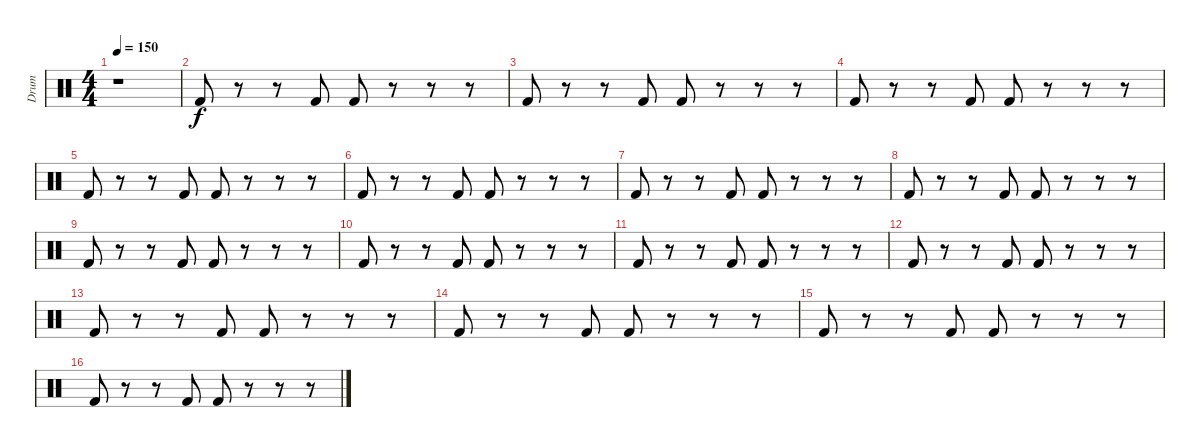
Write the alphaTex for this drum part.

\track ("Drum" "Drum") {instrument percussion}
\staff {score}
\articulation defaults
\ts (4 4)
\tempo 150
\clef neutral
\ks c
r.1{dy f} |
"Kick (hit) 2".8 r.8 r.8 "Kick (hit) 2".8 "Kick (hit) 2".8 r.8 r.8 r.8 |
"Kick (hit) 2".8 r.8 r.8 "Kick (hit) 2".8 "Kick (hit) 2".8 r.8 r.8 r.8 |
"Kick (hit) 2".8 r.8 r.8 "Kick (hit) 2".8 "Kick (hit) 2".8 r.8 r.8 r.8 |
"Kick (hit) 2".8 r.8 r.8 "Kick (hit) 2".8 "Kick (hit) 2".8 r.8 r.8 r.8 |
"Kick (hit) 2".8 r.8 r.8 "Kick (hit) 2".8 "Kick (hit) 2".8 r.8 r.8 r.8 |
"Kick (hit) 2".8 r.8 r.8 "Kick (hit) 2".8 "Kick (hit) 2".8 r.8 r.8 r.8 |
"Kick (hit) 2".8 r.8 r.8 "Kick (hit) 2".8 "Kick (hit) 2".8 r.8 r.8 r.8 |
"Kick (hit) 2".8 r.8 r.8 "Kick (hit) 2".8 "Kick (hit) 2".8 r.8 r.8 r.8 |
"Kick (hit) 2".8 r.8 r.8 "Kick (hit) 2".8 "Kick (hit) 2".8 r.8 r.8 r.8 |
"Kick (hit) 2".8 r.8 r.8 "Kick (hit) 2".8 "Kick (hit) 2".8 r.8 r.8 r.8 |
"Kick (hit) 2".8 r.8 r.8 "Kick (hit) 2".8 "Kick (hit) 2".8 r.8 r.8 r.8 |
"Kick (hit) 2".8 r.8 r.8 "Kick (hit) 2".8 "Kick (hit) 2".8 r.8 r.8 r.8 |
"Kick (hit) 2".8 r.8 r.8 "Kick (hit) 2".8 "Kick (hit) 2".8 r.8 r.8 r.8 |
"Kick (hit) 2".8 r.8 r.8 "Kick (hit) 2".8 "Kick (hit) 2".8 r.8 r.8 r.8 |
"Kick (hit) 2".8 r.8 r.8 "Kick (hit) 2".8 "Kick (hit) 2".8 r.8 r.8 r.8
